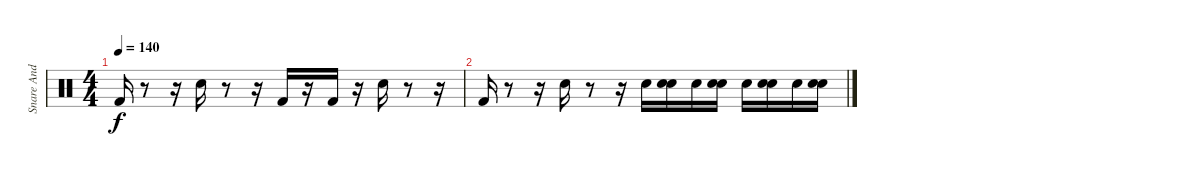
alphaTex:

\track ("Snare And Bass Drums" "Snare And ") {instrument percussion}
\staff {score}
\articulation defaults
\ts (4 4)
\tempo 140
\clef neutral
\ks c "Kick (hit) 2".16{dy f}
r.8 r.16 "Snare (hit) 2".16 r.8 r.16 "Kick (hit) 2".16 r.16 "Kick (hit) 2".16 r.16 "Snare (hit) 2".16 r.8 r.16 |
"Kick (hit) 2".16 r.8 r.16 "Snare (hit) 2".16 r.8 r.16 "Snare (hit) 2".16 ("Snare (hit) 2" "Electric Snare (hit)").16 "Snare (hit) 2".16 ("Snare (hit) 2" "Electric Snare (hit)").16 "Snare (hit) 2".16 ("Snare (hit) 2" "Electric Snare (hit)").16 "Snare (hit) 2".16 ("Snare (hit) 2" "Electric Snare (hit)").16
